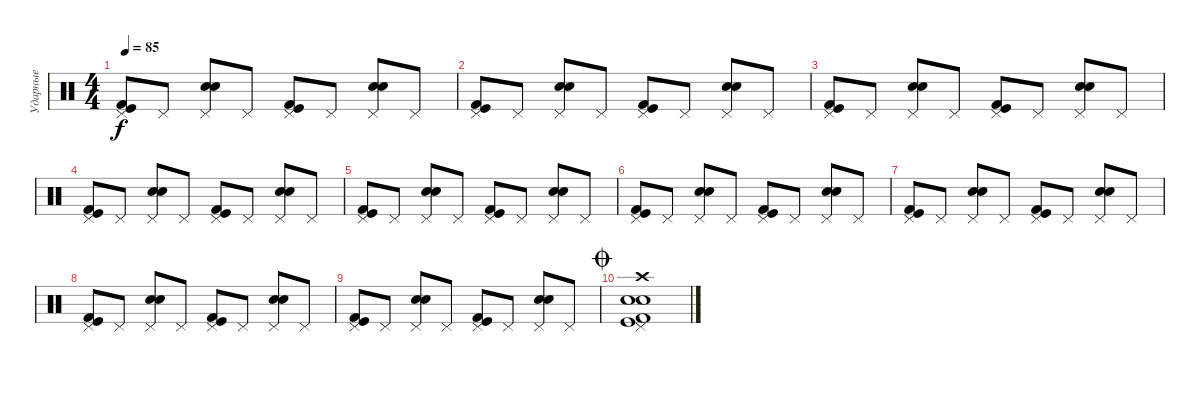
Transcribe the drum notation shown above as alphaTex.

\track ("Ударные" "Ударные") {instrument percussion}
\staff {score}
\articulation defaults
\ts (4 4)
\tempo 85
\clef neutral
\ks c
("Kick (hit) 2" "Kick (hit)" "Pedal Hi-Hat (hit)").8{dy f} "Pedal Hi-Hat (hit)".8 ("Snare (hit) 2" "Snare (hit) 2" "Pedal Hi-Hat (hit)").8 "Pedal Hi-Hat (hit)".8 ("Kick (hit) 2" "Kick (hit)" "Pedal Hi-Hat (hit)").8 "Pedal Hi-Hat (hit)".8 ("Snare (hit) 2" "Snare (hit) 2" "Pedal Hi-Hat (hit)").8 "Pedal Hi-Hat (hit)".8 |
("Kick (hit) 2" "Kick (hit)" "Pedal Hi-Hat (hit)").8 "Pedal Hi-Hat (hit)".8 ("Snare (hit) 2" "Snare (hit) 2" "Pedal Hi-Hat (hit)").8 "Pedal Hi-Hat (hit)".8 ("Kick (hit) 2" "Kick (hit)" "Pedal Hi-Hat (hit)").8 "Pedal Hi-Hat (hit)".8 ("Snare (hit) 2" "Snare (hit) 2" "Pedal Hi-Hat (hit)").8 "Pedal Hi-Hat (hit)".8 |
("Kick (hit) 2" "Kick (hit)" "Pedal Hi-Hat (hit)").8 "Pedal Hi-Hat (hit)".8 ("Snare (hit) 2" "Snare (hit) 2" "Pedal Hi-Hat (hit)").8 "Pedal Hi-Hat (hit)".8 ("Kick (hit) 2" "Kick (hit)" "Pedal Hi-Hat (hit)").8 "Pedal Hi-Hat (hit)".8 ("Snare (hit) 2" "Snare (hit) 2" "Pedal Hi-Hat (hit)").8 "Pedal Hi-Hat (hit)".8 |
("Kick (hit) 2" "Kick (hit)" "Pedal Hi-Hat (hit)").8 "Pedal Hi-Hat (hit)".8 ("Snare (hit) 2" "Snare (hit) 2" "Pedal Hi-Hat (hit)").8 "Pedal Hi-Hat (hit)".8 ("Kick (hit) 2" "Kick (hit)" "Pedal Hi-Hat (hit)").8 "Pedal Hi-Hat (hit)".8 ("Snare (hit) 2" "Snare (hit) 2" "Pedal Hi-Hat (hit)").8 "Pedal Hi-Hat (hit)".8 |
("Kick (hit) 2" "Kick (hit)" "Pedal Hi-Hat (hit)").8 "Pedal Hi-Hat (hit)".8 ("Snare (hit) 2" "Snare (hit) 2" "Pedal Hi-Hat (hit)").8 "Pedal Hi-Hat (hit)".8 ("Kick (hit) 2" "Kick (hit)" "Pedal Hi-Hat (hit)").8 "Pedal Hi-Hat (hit)".8 ("Snare (hit) 2" "Snare (hit) 2" "Pedal Hi-Hat (hit)").8 "Pedal Hi-Hat (hit)".8 |
("Kick (hit) 2" "Kick (hit)" "Pedal Hi-Hat (hit)").8 "Pedal Hi-Hat (hit)".8 ("Snare (hit) 2" "Snare (hit) 2" "Pedal Hi-Hat (hit)").8 "Pedal Hi-Hat (hit)".8 ("Kick (hit) 2" "Kick (hit)" "Pedal Hi-Hat (hit)").8 "Pedal Hi-Hat (hit)".8 ("Snare (hit) 2" "Snare (hit) 2" "Pedal Hi-Hat (hit)").8 "Pedal Hi-Hat (hit)".8 |
("Kick (hit) 2" "Kick (hit)" "Pedal Hi-Hat (hit)").8 "Pedal Hi-Hat (hit)".8 ("Snare (hit) 2" "Snare (hit) 2" "Pedal Hi-Hat (hit)").8 "Pedal Hi-Hat (hit)".8 ("Kick (hit) 2" "Kick (hit)" "Pedal Hi-Hat (hit)").8 "Pedal Hi-Hat (hit)".8 ("Snare (hit) 2" "Snare (hit) 2" "Pedal Hi-Hat (hit)").8 "Pedal Hi-Hat (hit)".8 |
("Kick (hit) 2" "Kick (hit)" "Pedal Hi-Hat (hit)").8 "Pedal Hi-Hat (hit)".8 ("Snare (hit) 2" "Snare (hit) 2" "Pedal Hi-Hat (hit)").8 "Pedal Hi-Hat (hit)".8 ("Kick (hit) 2" "Kick (hit)" "Pedal Hi-Hat (hit)").8 "Pedal Hi-Hat (hit)".8 ("Snare (hit) 2" "Snare (hit) 2" "Pedal Hi-Hat (hit)").8 "Pedal Hi-Hat (hit)".8 |
("Kick (hit) 2" "Kick (hit)" "Pedal Hi-Hat (hit)").8 "Pedal Hi-Hat (hit)".8 ("Snare (hit) 2" "Snare (hit) 2" "Pedal Hi-Hat (hit)").8 "Pedal Hi-Hat (hit)".8 ("Kick (hit) 2" "Kick (hit)" "Pedal Hi-Hat (hit)").8 "Pedal Hi-Hat (hit)".8 ("Snare (hit) 2" "Snare (hit) 2" "Pedal Hi-Hat (hit)").8 "Pedal Hi-Hat (hit)".8 |
\jump coda
("Snare (hit) 2" "Kick (hit) 2" "Kick (hit)" "Crash high (hit)" "Snare (hit) 2" "Pedal Hi-Hat (hit)").1
